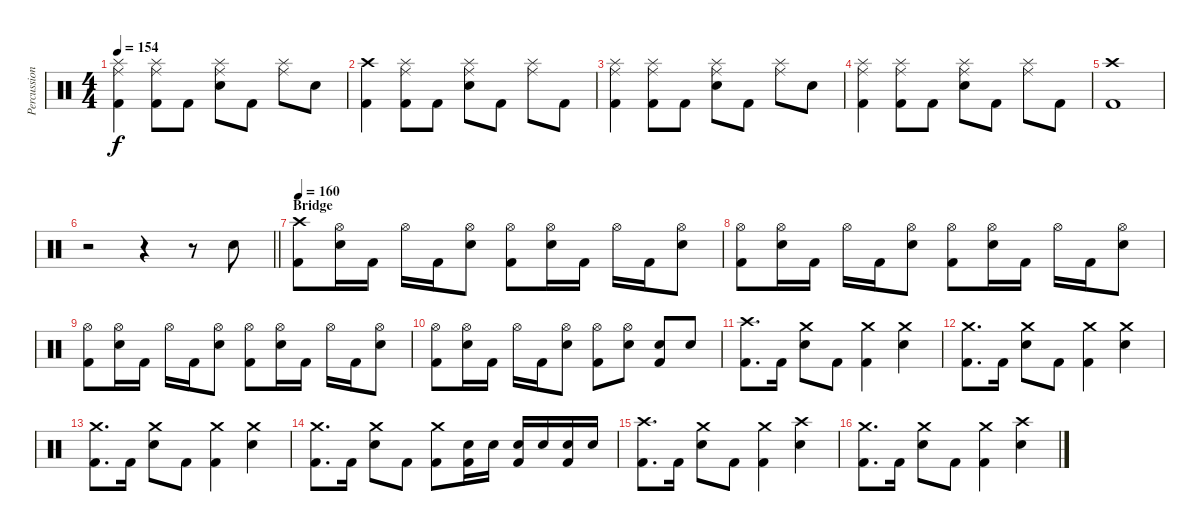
\track ("Percussion" "Percussion") {instrument percussion}
\staff {score}
\articulation defaults
\ts (4 4)
\tempo 154
\clef neutral
\ks c
("Splash (hit)" "Ride (middle)" "Kick (hit) 2").4{dy f} ("Splash (hit)" "Ride (middle)" "Kick (hit) 2").8 "Kick (hit) 2".8 ("Splash (hit)" "Ride (middle)" "Electric Snare (hit)").8 "Kick (hit) 2".8 ("Splash (hit)" "Ride (middle)").8 "Electric Snare (hit)".8 |
("Crash high (hit)" "Kick (hit) 2").4 ("Splash (hit)" "Ride (middle)" "Kick (hit) 2").8 "Kick (hit) 2".8 ("Splash (hit)" "Ride (middle)" "Electric Snare (hit)").8 "Kick (hit) 2".8 ("Splash (hit)" "Ride (middle)").8 "Kick (hit) 2".8 |
("Splash (hit)" "Ride (middle)" "Kick (hit) 2").4 ("Splash (hit)" "Ride (middle)" "Kick (hit) 2").8 "Kick (hit) 2".8 ("Splash (hit)" "Ride (middle)" "Electric Snare (hit)").8 "Kick (hit) 2".8 ("Splash (hit)" "Ride (middle)").8 "Electric Snare (hit)".8 |
("Splash (hit)" "Ride (middle)" "Kick (hit) 2").4 ("Splash (hit)" "Ride (middle)" "Kick (hit) 2").8 "Kick (hit) 2".8 ("Splash (hit)" "Ride (middle)" "Electric Snare (hit)").8 "Kick (hit) 2".8 ("Splash (hit)" "Ride (middle)").8 "Kick (hit) 2".8 |
("Crash high (hit)" "Kick (hit) 2").1 |
\barLineRight lightlight
r.2 r.4 r.8 "Electric Snare (hit)".8 |
\section ("" "Bridge")
\tempo 160
("Crash high (hit)" "Kick (hit) 2").8 ("Hi-Hat (open)" "Electric Snare (hit)").16 "Kick (hit) 2".16 "Hi-Hat (open)".16 "Kick (hit) 2".16 ("Hi-Hat (open)" "Electric Snare (hit)").8 ("Hi-Hat (open)" "Kick (hit) 2").8 ("Hi-Hat (open)" "Electric Snare (hit)").16 "Kick (hit) 2".16 "Hi-Hat (open)".16 "Kick (hit) 2".16 ("Hi-Hat (open)" "Electric Snare (hit)").8 |
("Hi-Hat (open)" "Kick (hit) 2").8 ("Hi-Hat (open)" "Electric Snare (hit)").16 "Kick (hit) 2".16 "Hi-Hat (open)".16 "Kick (hit) 2".16 ("Hi-Hat (open)" "Electric Snare (hit)").8 ("Hi-Hat (open)" "Kick (hit) 2").8 ("Hi-Hat (open)" "Electric Snare (hit)").16 "Kick (hit) 2".16 "Hi-Hat (open)".16 "Kick (hit) 2".16 ("Hi-Hat (open)" "Electric Snare (hit)").8 |
("Hi-Hat (open)" "Kick (hit) 2").8 ("Hi-Hat (open)" "Electric Snare (hit)").16 "Kick (hit) 2".16 "Hi-Hat (open)".16 "Kick (hit) 2".16 ("Hi-Hat (open)" "Electric Snare (hit)").8 ("Hi-Hat (open)" "Kick (hit) 2").8 ("Hi-Hat (open)" "Electric Snare (hit)").16 "Kick (hit) 2".16 "Hi-Hat (open)".16 "Kick (hit) 2".16 ("Hi-Hat (open)" "Electric Snare (hit)").8 |
("Hi-Hat (open)" "Kick (hit) 2").8 ("Hi-Hat (open)" "Electric Snare (hit)").16 "Kick (hit) 2".16 "Hi-Hat (open)".16 "Kick (hit) 2".16 ("Hi-Hat (open)" "Electric Snare (hit)").8 ("Hi-Hat (open)" "Kick (hit) 2").8 ("Hi-Hat (open)" "Electric Snare (hit)").8 ("Electric Snare (hit)" "Kick (hit) 2").8 "Electric Snare (hit)".8 |
("Crash high (hit)" "Kick (hit) 2").8{d} "Kick (hit) 2".16 ("Crash medium (hit)" "Electric Snare (hit)").8 "Kick (hit) 2".8 ("Crash medium (hit)" "Kick (hit) 2").4 ("Crash medium (hit)" "Electric Snare (hit)").4 |
("Crash medium (hit)" "Kick (hit) 2").8{d} "Kick (hit) 2".16 ("Crash medium (hit)" "Electric Snare (hit)").8 "Kick (hit) 2".8 ("Crash medium (hit)" "Kick (hit) 2").4 ("Crash medium (hit)" "Electric Snare (hit)").4 |
("Crash medium (hit)" "Kick (hit) 2").8{d} "Kick (hit) 2".16 ("Crash medium (hit)" "Electric Snare (hit)").8 "Kick (hit) 2".8 ("Crash medium (hit)" "Kick (hit) 2").4 ("Crash medium (hit)" "Electric Snare (hit)").4 |
("Crash medium (hit)" "Kick (hit) 2").8{d} "Kick (hit) 2".16 ("Crash medium (hit)" "Electric Snare (hit)").8 "Kick (hit) 2".8 ("Crash medium (hit)" "Kick (hit) 2").8 ("Electric Snare (hit)" "Kick (hit) 2").16 "Electric Snare (hit)".16 ("Electric Snare (hit)" "Kick (hit) 2").16 "Electric Snare (hit)".16 ("Electric Snare (hit)" "Kick (hit) 2").16 "Electric Snare (hit)".16 |
("Crash high (hit)" "Kick (hit) 2").8{d} "Kick (hit) 2".16 ("Crash medium (hit)" "Electric Snare (hit)").8 "Kick (hit) 2".8 ("Crash medium (hit)" "Kick (hit) 2").4 ("Crash high (hit)" "Electric Snare (hit)").4 |
("Crash medium (hit)" "Kick (hit) 2").8{d} "Kick (hit) 2".16 ("Crash medium (hit)" "Electric Snare (hit)").8 "Kick (hit) 2".8 ("Crash medium (hit)" "Kick (hit) 2").4 ("Crash high (hit)" "Electric Snare (hit)").4
